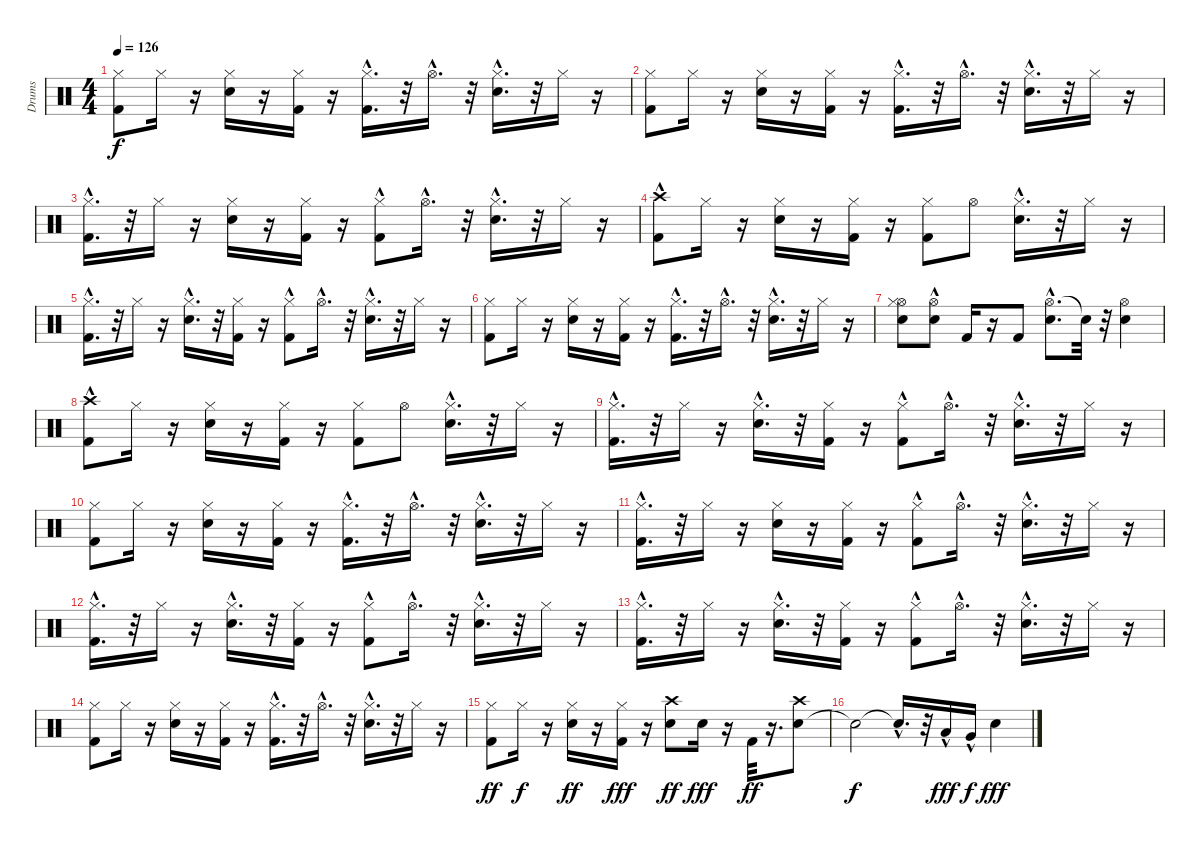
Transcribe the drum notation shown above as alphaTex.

\track ("Drums" "Drums") {instrument percussion}
\staff {score}
\articulation defaults
\ts (4 4)
\tempo 126
\clef neutral
\ks c
("Kick (hit) 2" "Hi-Hat (closed)").8{dy f} "Hi-Hat (closed)".16 r.16 ("Hi-Hat (closed)" "Electric Snare (hit)").16 r.16 ("Hi-Hat (closed)" "Kick (hit) 2").16 r.16 ("Hi-Hat (closed)"{hac} "Kick (hit) 2"{hac}).16{d} r.32 "Hi-Hat (open)"{hac}.16{d} r.32 ("Hi-Hat (closed)"{hac} "Electric Snare (hit)"{hac}).16{d} r.32 "Hi-Hat (closed)".16 r.16 |
("Hi-Hat (closed)" "Kick (hit) 2").8 "Hi-Hat (closed)".16 r.16 ("Electric Snare (hit)" "Hi-Hat (closed)").16 r.16 ("Hi-Hat (closed)" "Kick (hit) 2").16 r.16 ("Hi-Hat (closed)" "Kick (hit) 2"{hac}).16{d} r.32 "Hi-Hat (open)"{hac}.16{d} r.32 ("Hi-Hat (closed)" "Electric Snare (hit)"{hac}).16{d} r.32 "Hi-Hat (closed)".16 r.16 |
("Kick (hit) 2"{hac} "Hi-Hat (closed)").16{d} r.32 "Hi-Hat (closed)".16 r.16 ("Electric Snare (hit)" "Hi-Hat (closed)").16 r.16 ("Kick (hit) 2" "Hi-Hat (closed)").16 r.16 ("Kick (hit) 2" "Hi-Hat (closed)"{hac}).8 "Hi-Hat (open)"{hac}.16{d} r.32 ("Electric Snare (hit)"{hac} "Hi-Hat (closed)"{hac}).16{d} r.32 "Hi-Hat (closed)".16 r.16 |
("Crash high (hit)"{hac} "Kick (hit) 2").8 "Hi-Hat (closed)".16 r.16 ("Electric Snare (hit)" "Hi-Hat (closed)").16 r.16 ("Kick (hit) 2" "Hi-Hat (closed)").16 r.16 ("Kick (hit) 2" "Hi-Hat (closed)").8 "Hi-Hat (open)".8 ("Hi-Hat (closed)" "Electric Snare (hit)"{hac}).16{d} r.32 "Hi-Hat (closed)".16 r.16 |
("Kick (hit) 2"{hac} "Hi-Hat (closed)").16{d} r.32 "Hi-Hat (closed)".16 r.16 ("Electric Snare (hit)"{hac} "Hi-Hat (closed)").16{d} r.32 ("Kick (hit) 2" "Hi-Hat (closed)").16 r.16 ("Kick (hit) 2" "Hi-Hat (closed)"{hac}).8 "Hi-Hat (open)"{hac}.16{d} r.32 ("Hi-Hat (closed)"{hac} "Electric Snare (hit)").16{d} r.32 "Hi-Hat (closed)".16 r.16 |
("Kick (hit) 2" "Hi-Hat (closed)").8 "Hi-Hat (closed)".16 r.16 ("Hi-Hat (closed)" "Electric Snare (hit)").16 r.16 ("Kick (hit) 2" "Hi-Hat (closed)").16 r.16 ("Hi-Hat (closed)" "Kick (hit) 2"{hac}).16{d} r.32 "Hi-Hat (open)"{hac}.16{d} r.32 ("Hi-Hat (closed)" "Electric Snare (hit)"{hac}).16{d} r.32 "Hi-Hat (closed)".16 r.16 |
("Hi-Hat (open)" "Electric Snare (hit)" "Hi-Hat (closed)").8 ("Hi-Hat (open)" "Electric Snare (hit)"{hac}).8 "Kick (hit) 2".16 r.16 "Kick (hit) 2".8 ("Hi-Hat (open)"{hac} "Electric Snare (hit)").8{d} "Snare (hit)"{t}.32 r.32 ("Electric Snare (hit)" "Hi-Hat (open)").4 |
("Crash high (hit)"{hac} "Kick (hit) 2").8 "Hi-Hat (closed)".16 r.16 ("Hi-Hat (closed)" "Electric Snare (hit)").16 r.16 ("Hi-Hat (closed)" "Kick (hit) 2").16 r.16 ("Hi-Hat (closed)" "Kick (hit) 2").8 "Hi-Hat (open)".8 ("Electric Snare (hit)"{hac} "Hi-Hat (closed)").16{d} r.32 "Hi-Hat (closed)".16 r.16 |
("Hi-Hat (closed)" "Kick (hit) 2"{hac}).16{d} r.32 "Hi-Hat (closed)".16 r.16 ("Hi-Hat (closed)" "Electric Snare (hit)"{hac}).16{d} r.32 ("Kick (hit) 2" "Hi-Hat (closed)").16 r.16 ("Hi-Hat (closed)"{hac} "Kick (hit) 2").8 "Hi-Hat (open)"{hac}.16{d} r.32 ("Electric Snare (hit)" "Hi-Hat (closed)"{hac}).16{d} r.32 "Hi-Hat (closed)".16 r.16 |
("Kick (hit) 2" "Hi-Hat (closed)").8 "Hi-Hat (closed)".16 r.16 ("Electric Snare (hit)" "Hi-Hat (closed)").16 r.16 ("Kick (hit) 2" "Hi-Hat (closed)").16 r.16 ("Kick (hit) 2"{hac} "Hi-Hat (closed)").16{d} r.32 "Hi-Hat (open)"{hac}.16{d} r.32 ("Hi-Hat (closed)" "Electric Snare (hit)"{hac}).16{d} r.32 "Hi-Hat (closed)".16 r.16 |
("Hi-Hat (closed)" "Kick (hit) 2"{hac}).16{d} r.32 "Hi-Hat (closed)".16 r.16 ("Electric Snare (hit)" "Hi-Hat (closed)").16 r.16 ("Hi-Hat (closed)" "Kick (hit) 2").16 r.16 ("Kick (hit) 2" "Hi-Hat (closed)"{hac}).8 "Hi-Hat (open)"{hac}.16{d} r.32 ("Hi-Hat (closed)"{hac} "Electric Snare (hit)"{hac}).16{d} r.32 "Hi-Hat (closed)".16 r.16 |
("Hi-Hat (closed)" "Kick (hit) 2"{hac}).16{d} r.32 "Hi-Hat (closed)".16 r.16 ("Hi-Hat (closed)" "Electric Snare (hit)"{hac}).16{d} r.32 ("Kick (hit) 2" "Hi-Hat (closed)").16 r.16 ("Kick (hit) 2" "Hi-Hat (closed)"{hac}).8 "Hi-Hat (open)"{hac}.16{d} r.32 ("Hi-Hat (closed)"{hac} "Electric Snare (hit)").16{d} r.32 "Hi-Hat (closed)".16 r.16 |
("Kick (hit) 2"{hac} "Hi-Hat (closed)").16{d} r.32 "Hi-Hat (closed)".16 r.16 ("Electric Snare (hit)"{hac} "Hi-Hat (closed)").16{d} r.32 ("Kick (hit) 2" "Hi-Hat (closed)").16 r.16 ("Hi-Hat (closed)"{hac} "Kick (hit) 2").8 "Hi-Hat (open)"{hac}.16{d} r.32 ("Electric Snare (hit)" "Hi-Hat (closed)"{hac}).16{d} r.32 "Hi-Hat (closed)".16 r.16 |
("Hi-Hat (closed)" "Kick (hit) 2").8 "Hi-Hat (closed)".16 r.16 ("Hi-Hat (closed)" "Electric Snare (hit)").16 r.16 ("Kick (hit) 2" "Hi-Hat (closed)").16 r.16 ("Kick (hit) 2"{hac} "Hi-Hat (closed)").16{d} r.32 "Hi-Hat (open)"{hac}.16{d} r.32 ("Hi-Hat (closed)" "Electric Snare (hit)"{hac}).16{d} r.32 "Hi-Hat (closed)".16 r.16 |
("Kick (hit) 2" "Hi-Hat (closed)").8{dy ff} "Hi-Hat (closed)".16{dy f} r.16 ("Hi-Hat (closed)" "Electric Snare (hit)").16{dy ff} r.16 ("Kick (hit) 2" "Hi-Hat (closed)").16{dy fff} r.16 ("Electric Snare (hit)" "Crash high (hit)").8{dy ff} "Electric Snare (hit)".16{dy fff} r.16 "Kick (hit) 2".32{dy ff} r.16{d} ("Electric Snare (hit)" "Crash high (hit)").8 |
"Snare (hit)"{t}.2{dy f} "Snare (hit)"{hac t}.16{d} r.32 "Low Tom (hit)"{hac}.16{dy fff} "Very Low Tom (hit)"{hac}.16{dy f} "Electric Snare (hit)".4{dy fff}
